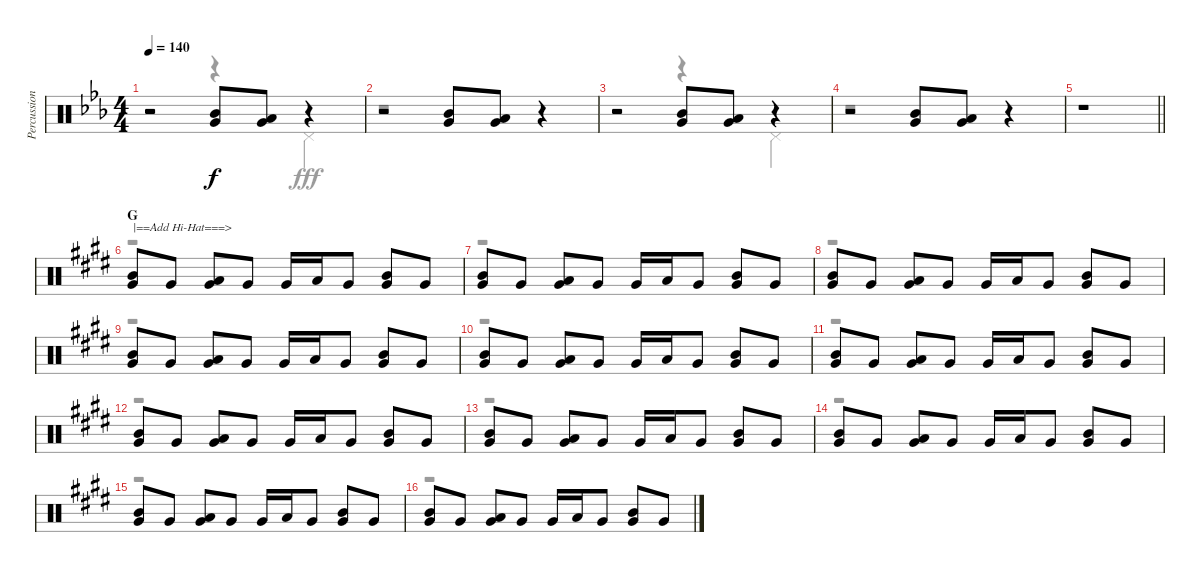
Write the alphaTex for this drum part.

\track ("Percussion" "Percussion") {instrument percussion}
\staff {score}
\articulation defaults
\voice
\ts (4 4)
\tempo 140
\clef neutral
\ks eb
r.2{dy f} ("Mid Tom (hit)" "Very Low Tom (hit)").8 ("Low Tom (hit)" "Very Low Tom (hit)").8 r.4 |
r.2 ("Mid Tom (hit)" "Very Low Tom (hit)").8 ("Low Tom (hit)" "Very Low Tom (hit)").8 r.4 |
r.2 ("Mid Tom (hit)" "Very Low Tom (hit)").8 ("Low Tom (hit)" "Very Low Tom (hit)").8 r.4 |
r.2 ("Mid Tom (hit)" "Very Low Tom (hit)").8 ("Low Tom (hit)" "Very Low Tom (hit)").8 r.4 |
\barLineRight lightlight
r.1 |
\section ("" "G")
\ks e
("Mid Tom (hit)" "Very Low Tom (hit)").8{txt "|==Add Hi-Hat===>"} "Very Low Tom (hit)".8 ("Low Tom (hit)" "Very Low Tom (hit)").8 "Very Low Tom (hit)".8 "Very Low Tom (hit)".16 "Low Tom (hit)".16 "Very Low Tom (hit)".8 ("Mid Tom (hit)" "Very Low Tom (hit)").8 "Very Low Tom (hit)".8 |
("Mid Tom (hit)" "Very Low Tom (hit)").8 "Very Low Tom (hit)".8 ("Low Tom (hit)" "Very Low Tom (hit)").8 "Very Low Tom (hit)".8 "Very Low Tom (hit)".16 "Low Tom (hit)".16 "Very Low Tom (hit)".8 ("Mid Tom (hit)" "Very Low Tom (hit)").8 "Very Low Tom (hit)".8 |
("Mid Tom (hit)" "Very Low Tom (hit)").8 "Very Low Tom (hit)".8 ("Low Tom (hit)" "Very Low Tom (hit)").8 "Very Low Tom (hit)".8 "Very Low Tom (hit)".16 "Low Tom (hit)".16 "Very Low Tom (hit)".8 ("Mid Tom (hit)" "Very Low Tom (hit)").8 "Very Low Tom (hit)".8 |
("Mid Tom (hit)" "Very Low Tom (hit)").8 "Very Low Tom (hit)".8 ("Low Tom (hit)" "Very Low Tom (hit)").8 "Very Low Tom (hit)".8 "Very Low Tom (hit)".16 "Low Tom (hit)".16 "Very Low Tom (hit)".8 ("Mid Tom (hit)" "Very Low Tom (hit)").8 "Very Low Tom (hit)".8 |
("Mid Tom (hit)" "Very Low Tom (hit)").8 "Very Low Tom (hit)".8 ("Low Tom (hit)" "Very Low Tom (hit)").8 "Very Low Tom (hit)".8 "Very Low Tom (hit)".16 "Low Tom (hit)".16 "Very Low Tom (hit)".8 ("Mid Tom (hit)" "Very Low Tom (hit)").8 "Very Low Tom (hit)".8 |
("Mid Tom (hit)" "Very Low Tom (hit)").8 "Very Low Tom (hit)".8 ("Low Tom (hit)" "Very Low Tom (hit)").8 "Very Low Tom (hit)".8 "Very Low Tom (hit)".16 "Low Tom (hit)".16 "Very Low Tom (hit)".8 ("Mid Tom (hit)" "Very Low Tom (hit)").8 "Very Low Tom (hit)".8 |
("Mid Tom (hit)" "Very Low Tom (hit)").8 "Very Low Tom (hit)".8 ("Low Tom (hit)" "Very Low Tom (hit)").8 "Very Low Tom (hit)".8 "Very Low Tom (hit)".16 "Low Tom (hit)".16 "Very Low Tom (hit)".8 ("Mid Tom (hit)" "Very Low Tom (hit)").8 "Very Low Tom (hit)".8 |
("Mid Tom (hit)" "Very Low Tom (hit)").8 "Very Low Tom (hit)".8 ("Low Tom (hit)" "Very Low Tom (hit)").8 "Very Low Tom (hit)".8 "Very Low Tom (hit)".16 "Low Tom (hit)".16 "Very Low Tom (hit)".8 ("Mid Tom (hit)" "Very Low Tom (hit)").8 "Very Low Tom (hit)".8 |
("Mid Tom (hit)" "Very Low Tom (hit)").8 "Very Low Tom (hit)".8 ("Low Tom (hit)" "Very Low Tom (hit)").8 "Very Low Tom (hit)".8 "Very Low Tom (hit)".16 "Low Tom (hit)".16 "Very Low Tom (hit)".8 ("Mid Tom (hit)" "Very Low Tom (hit)").8 "Very Low Tom (hit)".8 |
("Mid Tom (hit)" "Very Low Tom (hit)").8 "Very Low Tom (hit)".8 ("Low Tom (hit)" "Very Low Tom (hit)").8 "Very Low Tom (hit)".8 "Very Low Tom (hit)".16 "Low Tom (hit)".16 "Very Low Tom (hit)".8 ("Mid Tom (hit)" "Very Low Tom (hit)").8 "Very Low Tom (hit)".8 |
("Mid Tom (hit)" "Very Low Tom (hit)").8 "Very Low Tom (hit)".8 ("Low Tom (hit)" "Very Low Tom (hit)").8 "Very Low Tom (hit)".8 "Very Low Tom (hit)".16 "Low Tom (hit)".16 "Very Low Tom (hit)".8 ("Mid Tom (hit)" "Very Low Tom (hit)").8 "Very Low Tom (hit)".8
\voice
\clef neutral
\ottava regular
\simile none
\ks eb
r.2{dy fff} r.4 "Pedal Hi-Hat (hit)".4 |
r.1 |
r.2 r.4 "Pedal Hi-Hat (hit)".4 |
r.1 |
\barLineRight lightlight
r.1 |
\ks e
r.1 |
r.1 |
r.1 |
r.1 |
r.1 |
r.1 |
r.1 |
r.1 |
r.1 |
r.1 |
r.1
